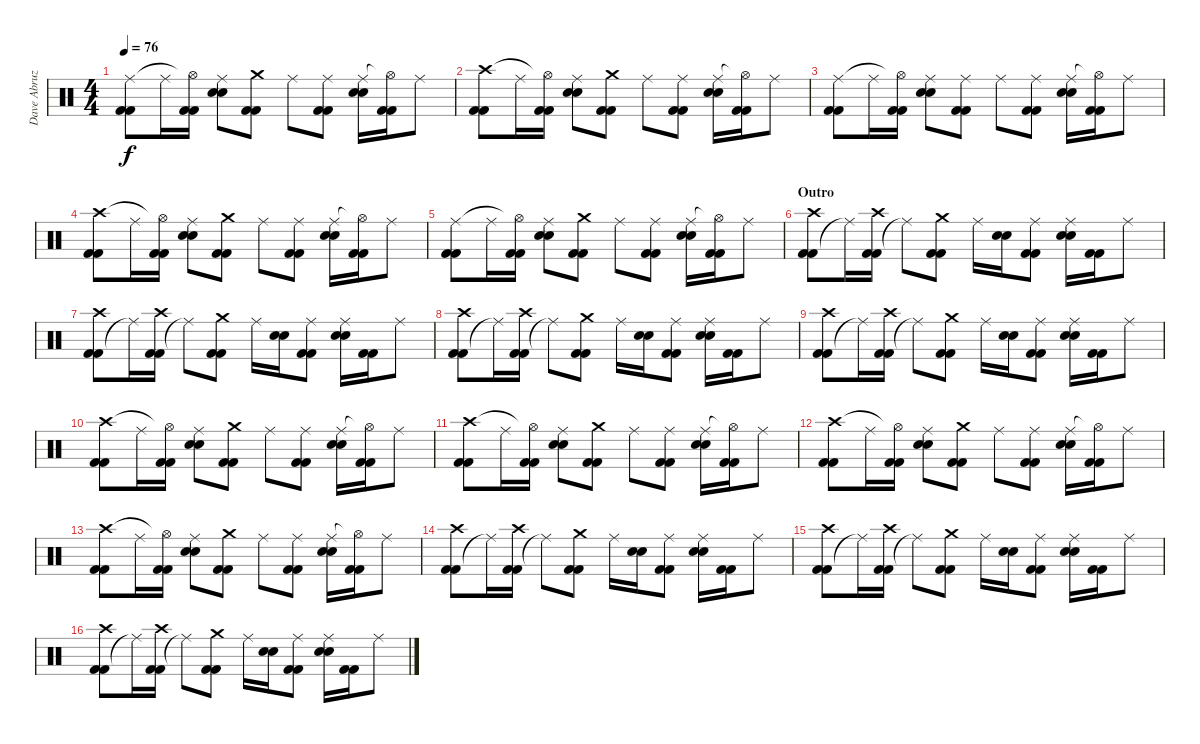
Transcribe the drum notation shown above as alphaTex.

\track ("Dave Abruzzese" "Dave Abruz") {instrument percussion}
\staff {score}
\articulation defaults
\ts (4 4)
\tempo 76
\clef neutral
\ks c
("Kick (hit) 2" "Kick (hit) 2" "Ride (middle)").8{dy f} "Ride (middle)".16 ("Kick (hit) 2" "Kick (hit) 2" "Hi-Hat (open)"{t}).16 ("Electric Snare (hit)" "Electric Snare (hit)" "Ride (middle)").8 ("Kick (hit) 2" "Kick (hit) 2" "Crash medium (hit)").8 "Ride (middle)".8 ("Kick (hit) 2" "Kick (hit) 2" "Ride (middle)").8 ("Electric Snare (hit)" "Electric Snare (hit)" "Ride (middle)").16 ("Kick (hit) 2" "Kick (hit) 2" "Hi-Hat (open)"{t}).16 "Ride (middle)".8 |
("Kick (hit) 2" "Kick (hit) 2" "Crash high (hit)").8 "Ride (middle)".16 ("Kick (hit) 2" "Kick (hit) 2" "Hi-Hat (open)"{t}).16 ("Electric Snare (hit)" "Electric Snare (hit)" "Ride (middle)").8 ("Kick (hit) 2" "Kick (hit) 2" "Crash medium (hit)").8 "Ride (middle)".8 ("Kick (hit) 2" "Kick (hit) 2" "Ride (middle)").8 ("Electric Snare (hit)" "Electric Snare (hit)" "Ride (middle)").16 ("Kick (hit) 2" "Kick (hit) 2" "Hi-Hat (open)"{t}).16 "Ride (middle)".8 |
("Kick (hit) 2" "Kick (hit) 2" "Ride (middle)").8 "Ride (middle)".16 ("Kick (hit) 2" "Kick (hit) 2" "Hi-Hat (open)"{t}).16 ("Electric Snare (hit)" "Electric Snare (hit)" "Ride (middle)").8 ("Kick (hit) 2" "Kick (hit) 2" "Ride (middle)").8 "Ride (middle)".8 ("Kick (hit) 2" "Kick (hit) 2" "Ride (middle)").8 ("Electric Snare (hit)" "Electric Snare (hit)" "Ride (middle)").16 ("Kick (hit) 2" "Kick (hit) 2" "Hi-Hat (open)"{t}).16 "Ride (middle)".8 |
("Kick (hit) 2" "Kick (hit) 2" "Crash high (hit)").8 "Ride (middle)".16 ("Kick (hit) 2" "Kick (hit) 2" "Hi-Hat (open)"{t}).16 ("Electric Snare (hit)" "Electric Snare (hit)" "Ride (middle)").8 ("Kick (hit) 2" "Kick (hit) 2" "Crash medium (hit)").8 "Ride (middle)".8 ("Kick (hit) 2" "Kick (hit) 2" "Ride (middle)").8 ("Electric Snare (hit)" "Electric Snare (hit)" "Ride (middle)").16 ("Kick (hit) 2" "Kick (hit) 2" "Hi-Hat (open)"{t}).16 "Ride (middle)".8 |
("Kick (hit) 2" "Kick (hit) 2" "Ride (middle)").8 "Ride (middle)".16 ("Kick (hit) 2" "Kick (hit) 2" "Hi-Hat (open)"{t}).16 ("Electric Snare (hit)" "Electric Snare (hit)" "Ride (middle)").8 ("Kick (hit) 2" "Kick (hit) 2" "Crash medium (hit)").8 "Ride (middle)".8 ("Kick (hit) 2" "Kick (hit) 2" "Ride (middle)").8 ("Electric Snare (hit)" "Electric Snare (hit)" "Ride (middle)").16 ("Kick (hit) 2" "Kick (hit) 2" "Hi-Hat (open)"{t}).16 "Ride (middle)".8 |
\section ("" "Outro")
("Kick (hit) 2" "Kick (hit) 2" "Crash high (hit)").8 "Ride (middle)"{t}.16 ("Kick (hit) 2" "Kick (hit) 2" "Crash high (hit)").16 "Ride (middle)"{t}.8 ("Kick (hit) 2" "Kick (hit) 2" "Crash medium (hit)").8 "Ride (middle)".16 ("Electric Snare (hit)" "Electric Snare (hit)").16 ("Kick (hit) 2" "Kick (hit) 2" "Ride (middle)").8 ("Electric Snare (hit)" "Electric Snare (hit)" "Ride (middle)").16 ("Kick (hit) 2" "Kick (hit) 2").16 "Ride (middle)".8 |
("Kick (hit) 2" "Kick (hit) 2" "Crash high (hit)").8 "Ride (middle)"{t}.16 ("Kick (hit) 2" "Kick (hit) 2" "Crash high (hit)").16 "Ride (middle)"{t}.8 ("Kick (hit) 2" "Kick (hit) 2" "Crash medium (hit)").8 "Ride (middle)".16 ("Electric Snare (hit)" "Electric Snare (hit)").16 ("Kick (hit) 2" "Kick (hit) 2" "Ride (middle)").8 ("Electric Snare (hit)" "Electric Snare (hit)" "Ride (middle)").16 ("Kick (hit) 2" "Kick (hit) 2").16 "Ride (middle)".8 |
("Kick (hit) 2" "Kick (hit) 2" "Crash high (hit)").8 "Ride (middle)"{t}.16 ("Kick (hit) 2" "Kick (hit) 2" "Crash high (hit)").16 "Ride (middle)"{t}.8 ("Kick (hit) 2" "Kick (hit) 2" "Crash medium (hit)").8 "Ride (middle)".16 ("Electric Snare (hit)" "Electric Snare (hit)").16 ("Kick (hit) 2" "Kick (hit) 2" "Ride (middle)").8 ("Electric Snare (hit)" "Electric Snare (hit)" "Ride (middle)").16 ("Kick (hit) 2" "Kick (hit) 2").16 "Ride (middle)".8 |
("Kick (hit) 2" "Kick (hit) 2" "Crash high (hit)").8 "Ride (middle)"{t}.16 ("Kick (hit) 2" "Kick (hit) 2" "Crash high (hit)").16 "Ride (middle)"{t}.8 ("Kick (hit) 2" "Kick (hit) 2" "Crash medium (hit)").8 "Ride (middle)".16 ("Electric Snare (hit)" "Electric Snare (hit)").16 ("Kick (hit) 2" "Kick (hit) 2" "Ride (middle)").8 ("Electric Snare (hit)" "Electric Snare (hit)" "Ride (middle)").16 ("Kick (hit) 2" "Kick (hit) 2").16 "Ride (middle)".8 |
\section ("" "")
("Kick (hit) 2" "Kick (hit) 2" "Crash high (hit)").8 "Ride (middle)".16 ("Kick (hit) 2" "Kick (hit) 2" "Hi-Hat (open)"{t}).16 ("Electric Snare (hit)" "Electric Snare (hit)" "Ride (middle)").8 ("Kick (hit) 2" "Kick (hit) 2" "Crash medium (hit)").8 "Ride (middle)".8 ("Kick (hit) 2" "Kick (hit) 2" "Ride (middle)").8 ("Electric Snare (hit)" "Electric Snare (hit)" "Ride (middle)").16 ("Kick (hit) 2" "Kick (hit) 2" "Hi-Hat (open)"{t}).16 "Ride (middle)".8 |
("Kick (hit) 2" "Kick (hit) 2" "Crash high (hit)").8 "Ride (middle)".16 ("Kick (hit) 2" "Kick (hit) 2" "Hi-Hat (open)"{t}).16 ("Electric Snare (hit)" "Electric Snare (hit)" "Ride (middle)").8 ("Kick (hit) 2" "Kick (hit) 2" "Crash medium (hit)").8 "Ride (middle)".8 ("Kick (hit) 2" "Kick (hit) 2" "Ride (middle)").8 ("Electric Snare (hit)" "Electric Snare (hit)" "Ride (middle)").16 ("Kick (hit) 2" "Kick (hit) 2" "Hi-Hat (open)"{t}).16 "Ride (middle)".8 |
("Kick (hit) 2" "Kick (hit) 2" "Crash high (hit)").8 "Ride (middle)".16 ("Kick (hit) 2" "Kick (hit) 2" "Hi-Hat (open)"{t}).16 ("Electric Snare (hit)" "Electric Snare (hit)" "Ride (middle)").8 ("Kick (hit) 2" "Kick (hit) 2" "Crash medium (hit)").8 "Ride (middle)".8 ("Kick (hit) 2" "Kick (hit) 2" "Ride (middle)").8 ("Electric Snare (hit)" "Electric Snare (hit)" "Ride (middle)").16 ("Kick (hit) 2" "Kick (hit) 2" "Hi-Hat (open)"{t}).16 "Ride (middle)".8 |
("Kick (hit) 2" "Kick (hit) 2" "Crash high (hit)").8 "Ride (middle)".16 ("Kick (hit) 2" "Kick (hit) 2" "Hi-Hat (open)"{t}).16 ("Electric Snare (hit)" "Electric Snare (hit)" "Ride (middle)").8 ("Kick (hit) 2" "Kick (hit) 2" "Crash medium (hit)").8 "Ride (middle)".8 ("Kick (hit) 2" "Kick (hit) 2" "Ride (middle)").8 ("Electric Snare (hit)" "Electric Snare (hit)" "Ride (middle)").16 ("Kick (hit) 2" "Kick (hit) 2" "Hi-Hat (open)"{t}).16 "Ride (middle)".8 |
("Kick (hit) 2" "Kick (hit) 2" "Crash high (hit)").8 "Ride (middle)"{t}.16 ("Kick (hit) 2" "Kick (hit) 2" "Crash high (hit)").16 "Ride (middle)"{t}.8 ("Kick (hit) 2" "Kick (hit) 2" "Crash medium (hit)").8 "Ride (middle)".16 ("Electric Snare (hit)" "Electric Snare (hit)").16 ("Kick (hit) 2" "Kick (hit) 2" "Ride (middle)").8 ("Electric Snare (hit)" "Electric Snare (hit)" "Ride (middle)").16 ("Kick (hit) 2" "Kick (hit) 2").16 "Ride (middle)".8 |
("Kick (hit) 2" "Kick (hit) 2" "Crash high (hit)").8 "Ride (middle)"{t}.16 ("Kick (hit) 2" "Kick (hit) 2" "Crash high (hit)").16 "Ride (middle)"{t}.8 ("Kick (hit) 2" "Kick (hit) 2" "Crash medium (hit)").8 "Ride (middle)".16 ("Electric Snare (hit)" "Electric Snare (hit)").16 ("Kick (hit) 2" "Kick (hit) 2" "Ride (middle)").8 ("Electric Snare (hit)" "Electric Snare (hit)" "Ride (middle)").16 ("Kick (hit) 2" "Kick (hit) 2").16 "Ride (middle)".8 |
("Kick (hit) 2" "Kick (hit) 2" "Crash high (hit)").8 "Ride (middle)"{t}.16 ("Kick (hit) 2" "Kick (hit) 2" "Crash high (hit)").16 "Ride (middle)"{t}.8 ("Kick (hit) 2" "Kick (hit) 2" "Crash medium (hit)").8 "Ride (middle)".16 ("Electric Snare (hit)" "Electric Snare (hit)").16 ("Kick (hit) 2" "Kick (hit) 2" "Ride (middle)").8 ("Electric Snare (hit)" "Electric Snare (hit)" "Ride (middle)").16 ("Kick (hit) 2" "Kick (hit) 2").16 "Ride (middle)".8
